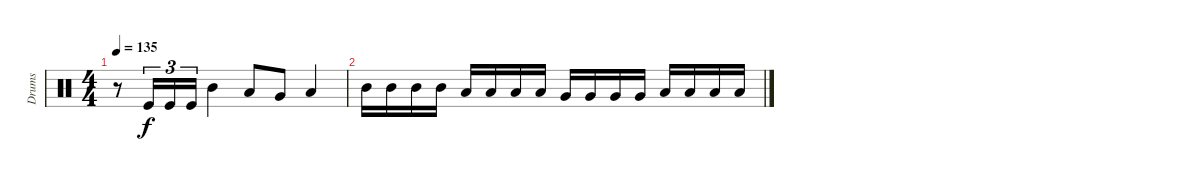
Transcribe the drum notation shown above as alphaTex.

\track ("Drums" "Drums") {instrument percussion}
\staff {score}
\articulation defaults
\ts (4 4)
\tempo 135
\clef neutral
\ks c
r.8{dy f} "Kick (hit)".16{tu (3 2)} "Kick (hit)".16{tu (3 2)} "Kick (hit)".16{tu (3 2)} "Mid Tom (hit)".4 "Low Tom (hit)".8 "Very Low Tom (hit)".8 "Low Floor Tom (hit)".4 |
"Mid Tom (hit)".16 "Mid Tom (hit)".16 "Mid Tom (hit)".16 "Mid Tom (hit)".16 "Low Tom (hit)".16 "Low Tom (hit)".16 "Low Tom (hit)".16 "Low Tom (hit)".16 "Very Low Tom (hit)".16 "Very Low Tom (hit)".16 "Very Low Tom (hit)".16 "Very Low Tom (hit)".16 "Low Floor Tom (hit)".16 "Low Floor Tom (hit)".16 "Low Floor Tom (hit)".16 "Low Floor Tom (hit)".16
